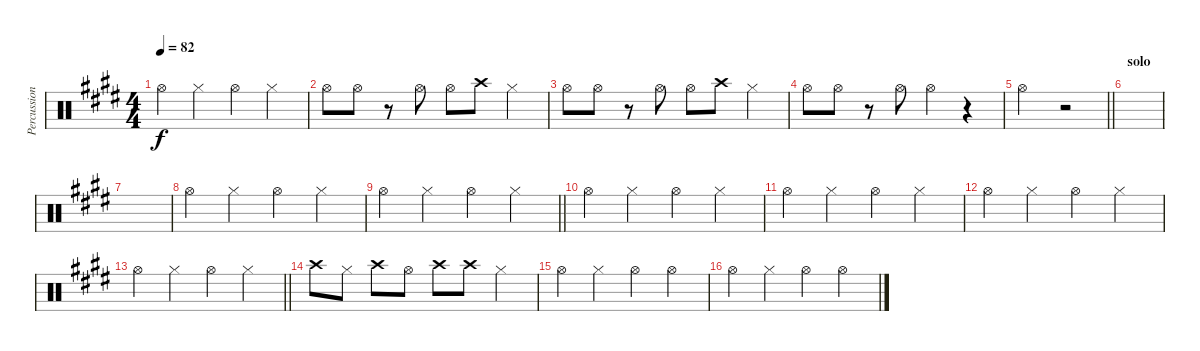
\track ("Percussion" "Percussion") {instrument percussion}
\staff {score}
\articulation defaults
\ts (4 4)
\tempo 82
\clef neutral
\ks e "Hi-Hat (open)".4{dy f} "Hi-Hat (closed)".4 "Hi-Hat (open)".4 "Hi-Hat (closed)".4
|
"Hi-Hat (open)".8 "Hi-Hat (open)".8 r.8 "Hi-Hat (open)".8 "Hi-Hat (open)".8 "Crash high (hit)".8 "Hi-Hat (closed)".4 |
"Hi-Hat (open)".8 "Hi-Hat (open)".8 r.8 "Hi-Hat (open)".8 "Hi-Hat (open)".8 "Crash high (hit)".8 "Hi-Hat (closed)".4 |
"Hi-Hat (open)".8 "Hi-Hat (open)".8 r.8 "Hi-Hat (open)".8 "Hi-Hat (open)".4 r.4 |
\barLineRight lightlight "Hi-Hat (open)".2
r.2 |
\section ("" "solo")
|
|
"Hi-Hat (open)".4 "Hi-Hat (closed)".4 "Hi-Hat (open)".4 "Hi-Hat (closed)".4 |
\barLineRight lightlight "Hi-Hat (open)".4 "Hi-Hat (closed)".4 "Hi-Hat (open)".4 "Hi-Hat (closed)".4
|
"Hi-Hat (open)".4 "Hi-Hat (closed)".4 "Hi-Hat (open)".4 "Hi-Hat (closed)".4 |
"Hi-Hat (open)".4 "Hi-Hat (closed)".4 "Hi-Hat (open)".4 "Hi-Hat (closed)".4 |
"Hi-Hat (open)".4 "Hi-Hat (closed)".4 "Hi-Hat (open)".4 "Hi-Hat (closed)".4 |
\barLineRight lightlight "Hi-Hat (open)".4 "Hi-Hat (closed)".4 "Hi-Hat (open)".4 "Hi-Hat (closed)".4
|
"Crash high (hit)".8 "Hi-Hat (closed)".8 "Crash high (hit)".8 "Hi-Hat (open)".8 "Crash high (hit)".8 "Crash high (hit)".8 "Hi-Hat (closed)".4 |
"Hi-Hat (open)".4 "Hi-Hat (closed)".4 "Hi-Hat (open)".4 "Hi-Hat (open)".4 |
"Hi-Hat (open)".4 "Hi-Hat (closed)".4 "Hi-Hat (open)".4 "Hi-Hat (open)".4
